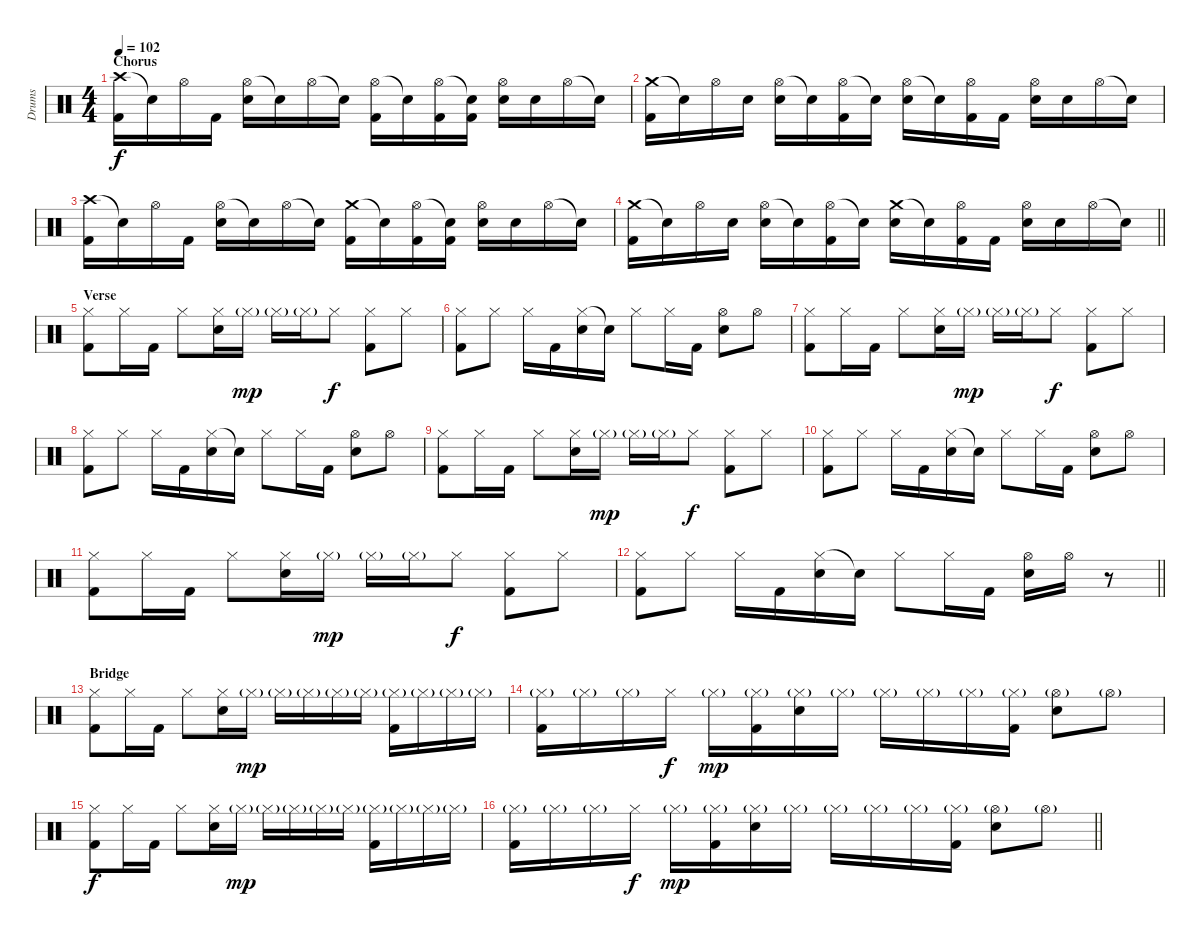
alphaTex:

\track ("Drums" "Drums") {instrument percussion}
\staff {score}
\articulation defaults
\ts (4 4)
\section ("" "Chorus")
\tempo 102
\clef neutral
\ks c
("Crash high (hit)" "Kick (hit) 2").16{dy f} "Snare (hit)"{t}.16 "Hi-Hat (open)".16 "Kick (hit) 2".16 ("Hi-Hat (open)" "Electric Snare (hit)").16 "Snare (hit)"{t}.16 "Hi-Hat (open)".16 "Snare (hit)"{t}.16 ("Hi-Hat (open)" "Kick (hit) 2").16 "Snare (hit)"{t}.16 ("Hi-Hat (open)" "Kick (hit) 2").16 ("Snare (hit)"{t} "Kick (hit) 2").16 ("Hi-Hat (open)" "Electric Snare (hit)").16 "Electric Snare (hit)".16 "Hi-Hat (open)".16 "Snare (hit)"{t}.16 |
("Crash medium (hit)" "Kick (hit) 2").16 "Snare (hit)"{t}.16 "Hi-Hat (open)".16 "Electric Snare (hit)".16 ("Hi-Hat (open)" "Electric Snare (hit)").16 "Snare (hit)"{t}.16 ("Hi-Hat (open)" "Kick (hit) 2").16 "Snare (hit)"{t}.16 ("Hi-Hat (open)" "Electric Snare (hit)").16 "Snare (hit)"{t}.16 ("Hi-Hat (open)" "Kick (hit) 2").16 "Kick (hit) 2".16 ("Hi-Hat (open)" "Electric Snare (hit)").16 "Electric Snare (hit)".16 "Hi-Hat (open)".16 "Snare (hit)"{t}.16 |
("Crash high (hit)" "Kick (hit) 2").16 "Snare (hit)"{t}.16 "Hi-Hat (open)".16 "Kick (hit) 2".16 ("Hi-Hat (open)" "Electric Snare (hit)").16 "Snare (hit)"{t}.16 "Hi-Hat (open)".16 "Snare (hit)"{t}.16 ("Crash medium (hit)" "Kick (hit) 2").16 "Snare (hit)"{t}.16 ("Hi-Hat (open)" "Kick (hit) 2").16 ("Snare (hit)"{t} "Kick (hit) 2").16 ("Hi-Hat (open)" "Electric Snare (hit)").16 "Electric Snare (hit)".16 "Hi-Hat (open)".16 "Snare (hit)"{t}.16 |
\barLineRight lightlight
("Crash medium (hit)" "Kick (hit) 2").16 "Snare (hit)"{t}.16 "Hi-Hat (open)".16 "Electric Snare (hit)".16 ("Hi-Hat (open)" "Electric Snare (hit)").16 "Snare (hit)"{t}.16 ("Hi-Hat (open)" "Kick (hit) 2").16 "Snare (hit)"{t}.16 ("Crash medium (hit)" "Electric Snare (hit)").16 "Snare (hit)"{t}.16 ("Hi-Hat (open)" "Kick (hit) 2").16 "Kick (hit) 2".16 ("Hi-Hat (open)" "Electric Snare (hit)").16 "Electric Snare (hit)".16 "Hi-Hat (open)".16 "Snare (hit)"{t}.16 |
\section ("" "Verse")
("Hi-Hat (closed)" "Kick (hit) 2").8 "Hi-Hat (closed)".16 "Kick (hit) 2".16 "Hi-Hat (closed)".8 ("Hi-Hat (closed)" "Electric Snare (hit)").16 "Hi-Hat (closed)"{g}.16{dy mp} "Hi-Hat (closed)"{g}.16 "Hi-Hat (closed)"{g}.16 "Hi-Hat (closed)".8{dy f} ("Hi-Hat (closed)" "Kick (hit) 2").8 "Hi-Hat (closed)".8 |
("Hi-Hat (closed)" "Kick (hit) 2").8 "Hi-Hat (closed)".8 "Hi-Hat (closed)".16 "Kick (hit) 2".16 ("Hi-Hat (closed)" "Electric Snare (hit)").16 "Snare (hit)"{t}.16 "Hi-Hat (closed)".8 "Hi-Hat (closed)".16 "Kick (hit) 2".16 ("Hi-Hat (open)" "Electric Snare (hit)").8 "Hi-Hat (open)".8 |
("Hi-Hat (closed)" "Kick (hit) 2").8 "Hi-Hat (closed)".16 "Kick (hit) 2".16 "Hi-Hat (closed)".8 ("Hi-Hat (closed)" "Electric Snare (hit)").16 "Hi-Hat (closed)"{g}.16{dy mp} "Hi-Hat (closed)"{g}.16 "Hi-Hat (closed)"{g}.16 "Hi-Hat (closed)".8{dy f} ("Hi-Hat (closed)" "Kick (hit) 2").8 "Hi-Hat (closed)".8 |
("Hi-Hat (closed)" "Kick (hit) 2").8 "Hi-Hat (closed)".8 "Hi-Hat (closed)".16 "Kick (hit) 2".16 ("Hi-Hat (closed)" "Electric Snare (hit)").16 "Snare (hit)"{t}.16 "Hi-Hat (closed)".8 "Hi-Hat (closed)".16 "Kick (hit) 2".16 ("Hi-Hat (open)" "Electric Snare (hit)").8 "Hi-Hat (open)".8 |
("Hi-Hat (closed)" "Kick (hit) 2").8 "Hi-Hat (closed)".16 "Kick (hit) 2".16 "Hi-Hat (closed)".8 ("Hi-Hat (closed)" "Electric Snare (hit)").16 "Hi-Hat (closed)"{g}.16{dy mp} "Hi-Hat (closed)"{g}.16 "Hi-Hat (closed)"{g}.16 "Hi-Hat (closed)".8{dy f} ("Hi-Hat (closed)" "Kick (hit) 2").8 "Hi-Hat (closed)".8 |
("Hi-Hat (closed)" "Kick (hit) 2").8 "Hi-Hat (closed)".8 "Hi-Hat (closed)".16 "Kick (hit) 2".16 ("Hi-Hat (closed)" "Electric Snare (hit)").16 "Snare (hit)"{t}.16 "Hi-Hat (closed)".8 "Hi-Hat (closed)".16 "Kick (hit) 2".16 ("Hi-Hat (open)" "Electric Snare (hit)").8 "Hi-Hat (open)".8 |
("Hi-Hat (closed)" "Kick (hit) 2").8 "Hi-Hat (closed)".16 "Kick (hit) 2".16 "Hi-Hat (closed)".8 ("Hi-Hat (closed)" "Electric Snare (hit)").16 "Hi-Hat (closed)"{g}.16{dy mp} "Hi-Hat (closed)"{g}.16 "Hi-Hat (closed)"{g}.16 "Hi-Hat (closed)".8{dy f} ("Hi-Hat (closed)" "Kick (hit) 2").8 "Hi-Hat (closed)".8 |
\barLineRight lightlight
("Hi-Hat (closed)" "Kick (hit) 2").8 "Hi-Hat (closed)".8 "Hi-Hat (closed)".16 "Kick (hit) 2".16 ("Hi-Hat (closed)" "Electric Snare (hit)").16 "Snare (hit)"{t}.16 "Hi-Hat (closed)".8 "Hi-Hat (closed)".16 "Kick (hit) 2".16 ("Hi-Hat (open)" "Electric Snare (hit)").16 "Hi-Hat (open)".16 r.8 |
\section ("" "Bridge")
("Hi-Hat (closed)" "Kick (hit) 2").8 "Hi-Hat (closed)".16 "Kick (hit) 2".16 "Hi-Hat (closed)".8 ("Hi-Hat (closed)" "Electric Snare (hit)").16 "Hi-Hat (closed)"{g}.16{dy mp} "Hi-Hat (closed)"{g}.16 "Hi-Hat (closed)"{g}.16 "Hi-Hat (closed)"{g}.16 "Hi-Hat (closed)"{g}.16 ("Hi-Hat (closed)"{g} "Kick (hit) 2").16 "Hi-Hat (closed)"{g}.16 "Hi-Hat (closed)"{g}.16 "Hi-Hat (closed)"{g}.16 |
("Hi-Hat (closed)"{g} "Kick (hit) 2").16 "Hi-Hat (closed)"{g}.16 "Hi-Hat (closed)"{g}.16 "Hi-Hat (closed)".16{dy f} "Hi-Hat (closed)"{g}.16{dy mp} ("Hi-Hat (closed)"{g} "Kick (hit) 2").16 ("Hi-Hat (closed)"{g} "Electric Snare (hit)").16 "Hi-Hat (closed)"{g}.16 "Hi-Hat (closed)"{g}.16 "Hi-Hat (closed)"{g}.16 "Hi-Hat (closed)"{g}.16 ("Hi-Hat (closed)"{g} "Kick (hit) 2").16 ("Hi-Hat (open)"{g} "Electric Snare (hit)").8 "Hi-Hat (open)"{g}.8 |
("Hi-Hat (closed)" "Kick (hit) 2").8{dy f} "Hi-Hat (closed)".16 "Kick (hit) 2".16 "Hi-Hat (closed)".8 ("Hi-Hat (closed)" "Electric Snare (hit)").16 "Hi-Hat (closed)"{g}.16{dy mp} "Hi-Hat (closed)"{g}.16 "Hi-Hat (closed)"{g}.16 "Hi-Hat (closed)"{g}.16 "Hi-Hat (closed)"{g}.16 ("Hi-Hat (closed)"{g} "Kick (hit) 2").16 "Hi-Hat (closed)"{g}.16 "Hi-Hat (closed)"{g}.16 "Hi-Hat (closed)"{g}.16 |
\barLineRight lightlight
("Hi-Hat (closed)"{g} "Kick (hit) 2").16 "Hi-Hat (closed)"{g}.16 "Hi-Hat (closed)"{g}.16 "Hi-Hat (closed)".16{dy f} "Hi-Hat (closed)"{g}.16{dy mp} ("Hi-Hat (closed)"{g} "Kick (hit) 2").16 ("Hi-Hat (closed)"{g} "Electric Snare (hit)").16 "Hi-Hat (closed)"{g}.16 "Hi-Hat (closed)"{g}.16 "Hi-Hat (closed)"{g}.16 "Hi-Hat (closed)"{g}.16 ("Hi-Hat (closed)"{g} "Kick (hit) 2").16 ("Hi-Hat (open)"{g} "Electric Snare (hit)").8 "Hi-Hat (open)"{g}.8
